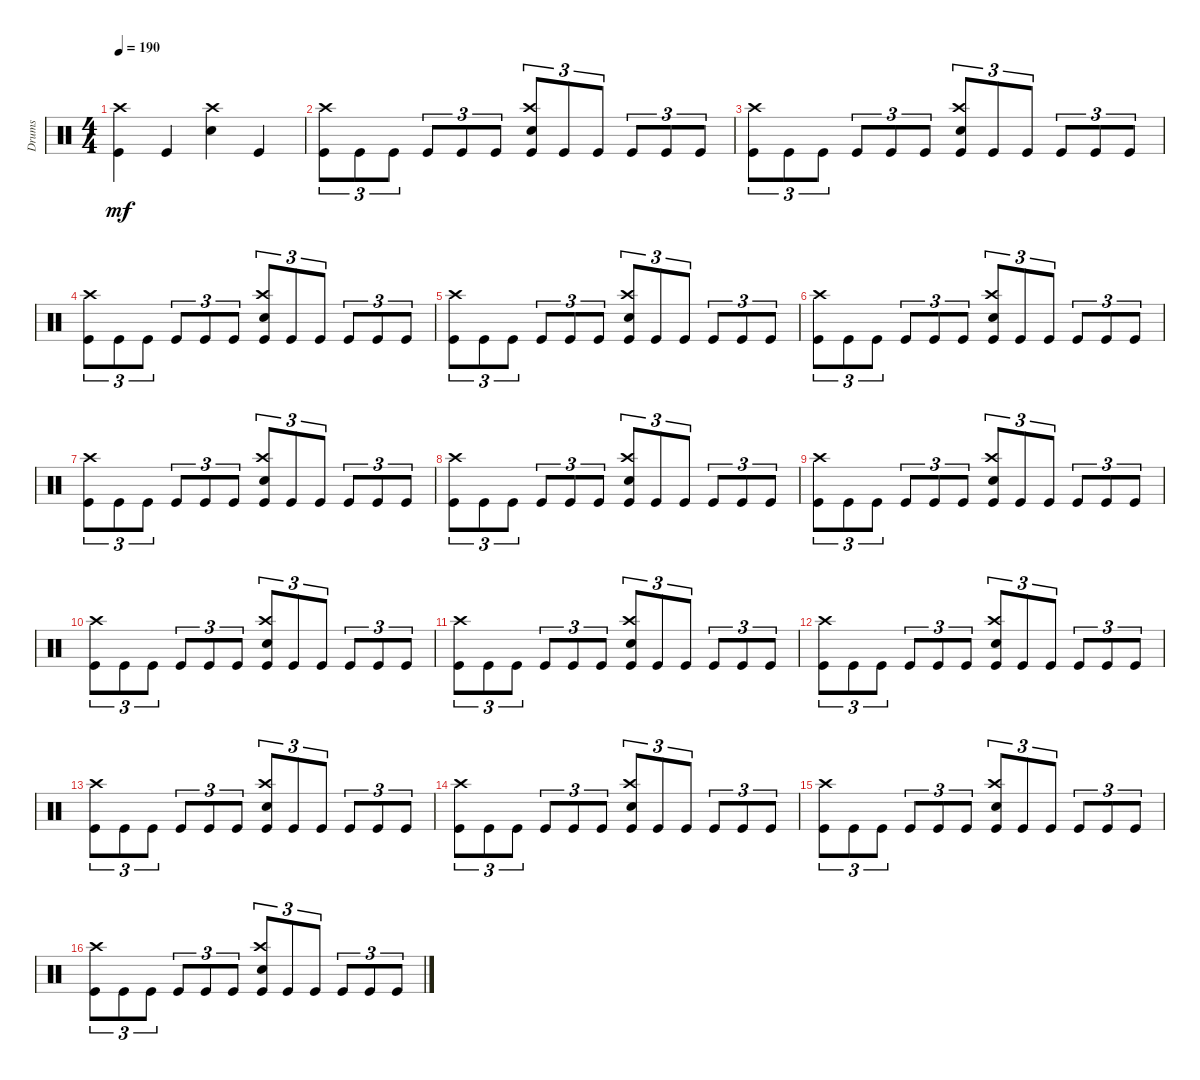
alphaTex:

\track ("Drums" "Drums") {instrument percussion}
\staff {score}
\articulation defaults
\ts (4 4)
\tempo 190
\clef neutral
\ks c
("Kick (hit)" "Crash high (hit)").4{dy mf} "Kick (hit)".4 ("Snare (hit) 2" "Crash high (hit)").4 "Kick (hit)".4 |
("Kick (hit)" "Crash high (hit)").8{tu (3 2)} "Kick (hit)".8{tu (3 2)} "Kick (hit)".8{tu (3 2)} "Kick (hit)".8{tu (3 2)} "Kick (hit)".8{tu (3 2)} "Kick (hit)".8{tu (3 2)} ("Kick (hit)" "Snare (hit) 2" "Crash high (hit)").8{tu (3 2)} "Kick (hit)".8{tu (3 2)} "Kick (hit)".8{tu (3 2)} "Kick (hit)".8{tu (3 2)} "Kick (hit)".8{tu (3 2)} "Kick (hit)".8{tu (3 2)} |
("Kick (hit)" "Crash high (hit)").8{tu (3 2)} "Kick (hit)".8{tu (3 2)} "Kick (hit)".8{tu (3 2)} "Kick (hit)".8{tu (3 2)} "Kick (hit)".8{tu (3 2)} "Kick (hit)".8{tu (3 2)} ("Kick (hit)" "Snare (hit) 2" "Crash high (hit)").8{tu (3 2)} "Kick (hit)".8{tu (3 2)} "Kick (hit)".8{tu (3 2)} "Kick (hit)".8{tu (3 2)} "Kick (hit)".8{tu (3 2)} "Kick (hit)".8{tu (3 2)} |
("Kick (hit)" "Crash high (hit)").8{tu (3 2)} "Kick (hit)".8{tu (3 2)} "Kick (hit)".8{tu (3 2)} "Kick (hit)".8{tu (3 2)} "Kick (hit)".8{tu (3 2)} "Kick (hit)".8{tu (3 2)} ("Kick (hit)" "Snare (hit) 2" "Crash high (hit)").8{tu (3 2)} "Kick (hit)".8{tu (3 2)} "Kick (hit)".8{tu (3 2)} "Kick (hit)".8{tu (3 2)} "Kick (hit)".8{tu (3 2)} "Kick (hit)".8{tu (3 2)} |
("Kick (hit)" "Crash high (hit)").8{tu (3 2)} "Kick (hit)".8{tu (3 2)} "Kick (hit)".8{tu (3 2)} "Kick (hit)".8{tu (3 2)} "Kick (hit)".8{tu (3 2)} "Kick (hit)".8{tu (3 2)} ("Kick (hit)" "Snare (hit) 2" "Crash high (hit)").8{tu (3 2)} "Kick (hit)".8{tu (3 2)} "Kick (hit)".8{tu (3 2)} "Kick (hit)".8{tu (3 2)} "Kick (hit)".8{tu (3 2)} "Kick (hit)".8{tu (3 2)} |
("Kick (hit)" "Crash high (hit)").8{tu (3 2)} "Kick (hit)".8{tu (3 2)} "Kick (hit)".8{tu (3 2)} "Kick (hit)".8{tu (3 2)} "Kick (hit)".8{tu (3 2)} "Kick (hit)".8{tu (3 2)} ("Kick (hit)" "Snare (hit) 2" "Crash high (hit)").8{tu (3 2)} "Kick (hit)".8{tu (3 2)} "Kick (hit)".8{tu (3 2)} "Kick (hit)".8{tu (3 2)} "Kick (hit)".8{tu (3 2)} "Kick (hit)".8{tu (3 2)} |
("Kick (hit)" "Crash high (hit)").8{tu (3 2)} "Kick (hit)".8{tu (3 2)} "Kick (hit)".8{tu (3 2)} "Kick (hit)".8{tu (3 2)} "Kick (hit)".8{tu (3 2)} "Kick (hit)".8{tu (3 2)} ("Kick (hit)" "Snare (hit) 2" "Crash high (hit)").8{tu (3 2)} "Kick (hit)".8{tu (3 2)} "Kick (hit)".8{tu (3 2)} "Kick (hit)".8{tu (3 2)} "Kick (hit)".8{tu (3 2)} "Kick (hit)".8{tu (3 2)} |
("Kick (hit)" "Crash high (hit)").8{tu (3 2)} "Kick (hit)".8{tu (3 2)} "Kick (hit)".8{tu (3 2)} "Kick (hit)".8{tu (3 2)} "Kick (hit)".8{tu (3 2)} "Kick (hit)".8{tu (3 2)} ("Kick (hit)" "Snare (hit) 2" "Crash high (hit)").8{tu (3 2)} "Kick (hit)".8{tu (3 2)} "Kick (hit)".8{tu (3 2)} "Kick (hit)".8{tu (3 2)} "Kick (hit)".8{tu (3 2)} "Kick (hit)".8{tu (3 2)} |
("Kick (hit)" "Crash high (hit)").8{tu (3 2)} "Kick (hit)".8{tu (3 2)} "Kick (hit)".8{tu (3 2)} "Kick (hit)".8{tu (3 2)} "Kick (hit)".8{tu (3 2)} "Kick (hit)".8{tu (3 2)} ("Kick (hit)" "Snare (hit) 2" "Crash high (hit)").8{tu (3 2)} "Kick (hit)".8{tu (3 2)} "Kick (hit)".8{tu (3 2)} "Kick (hit)".8{tu (3 2)} "Kick (hit)".8{tu (3 2)} "Kick (hit)".8{tu (3 2)} |
("Crash high (hit)" "Kick (hit)").8{tu (3 2)} "Kick (hit)".8{tu (3 2)} "Kick (hit)".8{tu (3 2)} "Kick (hit)".8{tu (3 2)} "Kick (hit)".8{tu (3 2)} "Kick (hit)".8{tu (3 2)} ("Snare (hit) 2" "Crash high (hit)" "Kick (hit)").8{tu (3 2)} "Kick (hit)".8{tu (3 2)} "Kick (hit)".8{tu (3 2)} "Kick (hit)".8{tu (3 2)} "Kick (hit)".8{tu (3 2)} "Kick (hit)".8{tu (3 2)} |
("Crash high (hit)" "Kick (hit)").8{tu (3 2)} "Kick (hit)".8{tu (3 2)} "Kick (hit)".8{tu (3 2)} "Kick (hit)".8{tu (3 2)} "Kick (hit)".8{tu (3 2)} "Kick (hit)".8{tu (3 2)} ("Snare (hit) 2" "Crash high (hit)" "Kick (hit)").8{tu (3 2)} "Kick (hit)".8{tu (3 2)} "Kick (hit)".8{tu (3 2)} "Kick (hit)".8{tu (3 2)} "Kick (hit)".8{tu (3 2)} "Kick (hit)".8{tu (3 2)} |
("Crash high (hit)" "Kick (hit)").8{tu (3 2)} "Kick (hit)".8{tu (3 2)} "Kick (hit)".8{tu (3 2)} "Kick (hit)".8{tu (3 2)} "Kick (hit)".8{tu (3 2)} "Kick (hit)".8{tu (3 2)} ("Snare (hit) 2" "Crash high (hit)" "Kick (hit)").8{tu (3 2)} "Kick (hit)".8{tu (3 2)} "Kick (hit)".8{tu (3 2)} "Kick (hit)".8{tu (3 2)} "Kick (hit)".8{tu (3 2)} "Kick (hit)".8{tu (3 2)} |
("Crash high (hit)" "Kick (hit)").8{tu (3 2)} "Kick (hit)".8{tu (3 2)} "Kick (hit)".8{tu (3 2)} "Kick (hit)".8{tu (3 2)} "Kick (hit)".8{tu (3 2)} "Kick (hit)".8{tu (3 2)} ("Snare (hit) 2" "Crash high (hit)" "Kick (hit)").8{tu (3 2)} "Kick (hit)".8{tu (3 2)} "Kick (hit)".8{tu (3 2)} "Kick (hit)".8{tu (3 2)} "Kick (hit)".8{tu (3 2)} "Kick (hit)".8{tu (3 2)} |
("Crash high (hit)" "Kick (hit)").8{tu (3 2)} "Kick (hit)".8{tu (3 2)} "Kick (hit)".8{tu (3 2)} "Kick (hit)".8{tu (3 2)} "Kick (hit)".8{tu (3 2)} "Kick (hit)".8{tu (3 2)} ("Snare (hit) 2" "Crash high (hit)" "Kick (hit)").8{tu (3 2)} "Kick (hit)".8{tu (3 2)} "Kick (hit)".8{tu (3 2)} "Kick (hit)".8{tu (3 2)} "Kick (hit)".8{tu (3 2)} "Kick (hit)".8{tu (3 2)} |
("Crash high (hit)" "Kick (hit)").8{tu (3 2)} "Kick (hit)".8{tu (3 2)} "Kick (hit)".8{tu (3 2)} "Kick (hit)".8{tu (3 2)} "Kick (hit)".8{tu (3 2)} "Kick (hit)".8{tu (3 2)} ("Snare (hit) 2" "Crash high (hit)" "Kick (hit)").8{tu (3 2)} "Kick (hit)".8{tu (3 2)} "Kick (hit)".8{tu (3 2)} "Kick (hit)".8{tu (3 2)} "Kick (hit)".8{tu (3 2)} "Kick (hit)".8{tu (3 2)} |
("Crash high (hit)" "Kick (hit)").8{tu (3 2)} "Kick (hit)".8{tu (3 2)} "Kick (hit)".8{tu (3 2)} "Kick (hit)".8{tu (3 2)} "Kick (hit)".8{tu (3 2)} "Kick (hit)".8{tu (3 2)} ("Snare (hit) 2" "Crash high (hit)" "Kick (hit)").8{tu (3 2)} "Kick (hit)".8{tu (3 2)} "Kick (hit)".8{tu (3 2)} "Kick (hit)".8{tu (3 2)} "Kick (hit)".8{tu (3 2)} "Kick (hit)".8{tu (3 2)}
